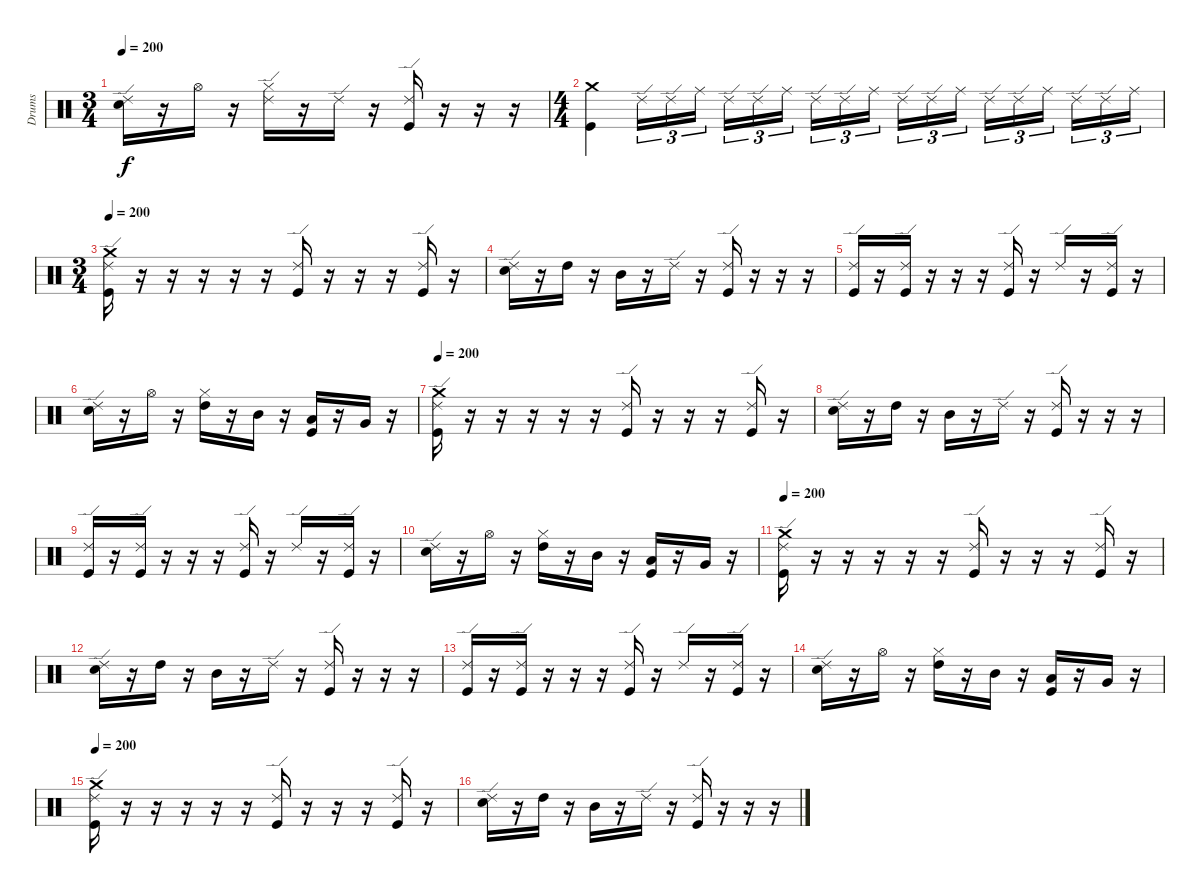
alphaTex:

\track ("Drums" "Drums") {instrument percussion}
\staff {score}
\articulation defaults
\ts (3 4)
\tempo 200
\clef neutral
\ks c
("Ride (edge) 2" "Electric Snare (hit)").16{dy f} r.16 "Hi-Hat (open)".16 r.16 ("Ride (edge) 2" "Hi-Hat (closed)").16 r.16 "Ride (edge) 2".16 r.16 ("Ride (edge) 2" "Kick (hit)").16 r.16 r.16 r.16 |
\ts (4 4)
("Crash medium (hit)" "Kick (hit)").4 "Ride (edge) 2".16{tu (3 2)} "Ride (edge) 2".16{tu (3 2)} "Ride (middle)".16{tu (3 2)} "Ride (edge) 2".16{tu (3 2)} "Ride (edge) 2".16{tu (3 2)} "Ride (middle)".16{tu (3 2)} "Ride (edge) 2".16{tu (3 2)} "Ride (edge) 2".16{tu (3 2)} "Ride (middle)".16{tu (3 2)} "Ride (edge) 2".16{tu (3 2)} "Ride (edge) 2".16{tu (3 2)} "Ride (middle)".16{tu (3 2)} "Ride (edge) 2".16{tu (3 2)} "Ride (edge) 2".16{tu (3 2)} "Ride (middle)".16{tu (3 2)} "Ride (edge) 2".16{tu (3 2)} "Ride (edge) 2".16{tu (3 2)} "Ride (middle)".16{tu (3 2)} |
\ts (3 4)
\tempo 200
("Ride (edge) 2" "Kick (hit)" "Crash medium (hit)").16 r.16 r.16 r.16 r.16 r.16 ("Ride (edge) 2" "Kick (hit)").16 r.16 r.16 r.16 ("Ride (edge) 2" "Kick (hit)").16 r.16 |
("Ride (edge) 2" "Electric Snare (hit)").16 r.16 "High Tom (hit)".16 r.16 "Mid Tom (hit)".16 r.16 "Ride (edge) 2".16 r.16 ("Ride (edge) 2" "Kick (hit)").16 r.16 r.16 r.16 |
("Ride (edge) 2" "Kick (hit)").16 r.16 ("Ride (edge) 2" "Kick (hit)").16 r.16 r.16 r.16 ("Ride (edge) 2" "Kick (hit)").16 r.16 "Ride (edge) 2".16 r.16 ("Ride (edge) 2" "Kick (hit)").16 r.16 |
("Ride (edge) 2" "Electric Snare (hit)").16 r.16 "Hi-Hat (open)".16 r.16 ("High Tom (hit)" "Hi-Hat (closed)").16 r.16 "Mid Tom (hit)".16 r.16 ("Low Tom (hit)" "Kick (hit)").16 r.16 "Very Low Tom (hit)".16 r.16 |
\tempo 200
("Ride (edge) 2" "Kick (hit)" "Crash medium (hit)").16 r.16 r.16 r.16 r.16 r.16 ("Ride (edge) 2" "Kick (hit)").16 r.16 r.16 r.16 ("Ride (edge) 2" "Kick (hit)").16 r.16 |
("Ride (edge) 2" "Electric Snare (hit)").16 r.16 "High Tom (hit)".16 r.16 "Mid Tom (hit)".16 r.16 "Ride (edge) 2".16 r.16 ("Ride (edge) 2" "Kick (hit)").16 r.16 r.16 r.16 |
("Ride (edge) 2" "Kick (hit)").16 r.16 ("Ride (edge) 2" "Kick (hit)").16 r.16 r.16 r.16 ("Ride (edge) 2" "Kick (hit)").16 r.16 "Ride (edge) 2".16 r.16 ("Ride (edge) 2" "Kick (hit)").16 r.16 |
("Ride (edge) 2" "Electric Snare (hit)").16 r.16 "Hi-Hat (open)".16 r.16 ("High Tom (hit)" "Hi-Hat (closed)").16 r.16 "Mid Tom (hit)".16 r.16 ("Low Tom (hit)" "Kick (hit)").16 r.16 "Very Low Tom (hit)".16 r.16 |
\tempo 200
("Ride (edge) 2" "Kick (hit)" "Crash medium (hit)").16 r.16 r.16 r.16 r.16 r.16 ("Ride (edge) 2" "Kick (hit)").16 r.16 r.16 r.16 ("Ride (edge) 2" "Kick (hit)").16 r.16 |
("Ride (edge) 2" "Electric Snare (hit)").16 r.16 "High Tom (hit)".16 r.16 "Mid Tom (hit)".16 r.16 "Ride (edge) 2".16 r.16 ("Ride (edge) 2" "Kick (hit)").16 r.16 r.16 r.16 |
("Ride (edge) 2" "Kick (hit)").16 r.16 ("Ride (edge) 2" "Kick (hit)").16 r.16 r.16 r.16 ("Ride (edge) 2" "Kick (hit)").16 r.16 "Ride (edge) 2".16 r.16 ("Ride (edge) 2" "Kick (hit)").16 r.16 |
("Ride (edge) 2" "Electric Snare (hit)").16 r.16 "Hi-Hat (open)".16 r.16 ("High Tom (hit)" "Hi-Hat (closed)").16 r.16 "Mid Tom (hit)".16 r.16 ("Low Tom (hit)" "Kick (hit)").16 r.16 "Very Low Tom (hit)".16 r.16 |
\tempo 200
("Ride (edge) 2" "Kick (hit)" "Crash medium (hit)").16 r.16 r.16 r.16 r.16 r.16 ("Ride (edge) 2" "Kick (hit)").16 r.16 r.16 r.16 ("Ride (edge) 2" "Kick (hit)").16 r.16 |
("Ride (edge) 2" "Electric Snare (hit)").16 r.16 "High Tom (hit)".16 r.16 "Mid Tom (hit)".16 r.16 "Ride (edge) 2".16 r.16 ("Ride (edge) 2" "Kick (hit)").16 r.16 r.16 r.16
